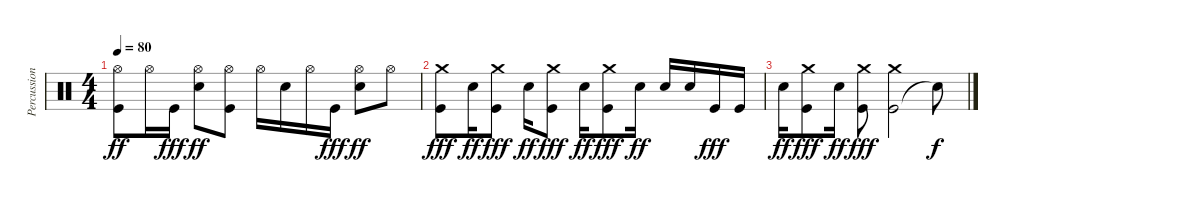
\track ("Percussion" "Percussion") {instrument percussion}
\staff {score}
\articulation defaults
\ts (4 4)
\tempo 80
\clef neutral
\ks c
("Kick (hit)" "Hi-Hat (open)").8{dy ff} "Hi-Hat (open)".16 "Kick (hit)".16{dy fff} ("Snare (hit) 2" "Hi-Hat (open)").8{dy ff} ("Kick (hit)" "Hi-Hat (open)").8 "Hi-Hat (open)".16 "Snare (hit) 2".16 "Hi-Hat (open)".16 "Kick (hit)".16{dy fff} ("Snare (hit) 2" "Hi-Hat (open)").8{dy ff} "Hi-Hat (open)".8 |
("Kick (hit)" "Crash medium (hit)").8{dy fff} "Snare (hit) 2".16{dy ff} ("Kick (hit)" "Crash medium (hit)").8{dy fff} "Snare (hit) 2".16{dy ff} ("Kick (hit)" "Crash medium (hit)").8{dy fff} "Snare (hit) 2".16{dy ff} ("Kick (hit)" "Crash medium (hit)").8{dy fff} "Snare (hit) 2".16{dy ff} "Snare (hit) 2".16 "Snare (hit) 2".16 "Kick (hit)".16{dy fff} "Kick (hit)".16 |
"Snare (hit) 2".16{dy ff} ("Kick (hit)" "Crash medium (hit)").8{dy fff} "Snare (hit) 2".16{dy ff} ("Kick (hit)" "Crash medium (hit)").8{dy fff} ("Kick (hit)" "Crash medium (hit)").2 "Snare (hit)"{t}.8{dy f}
